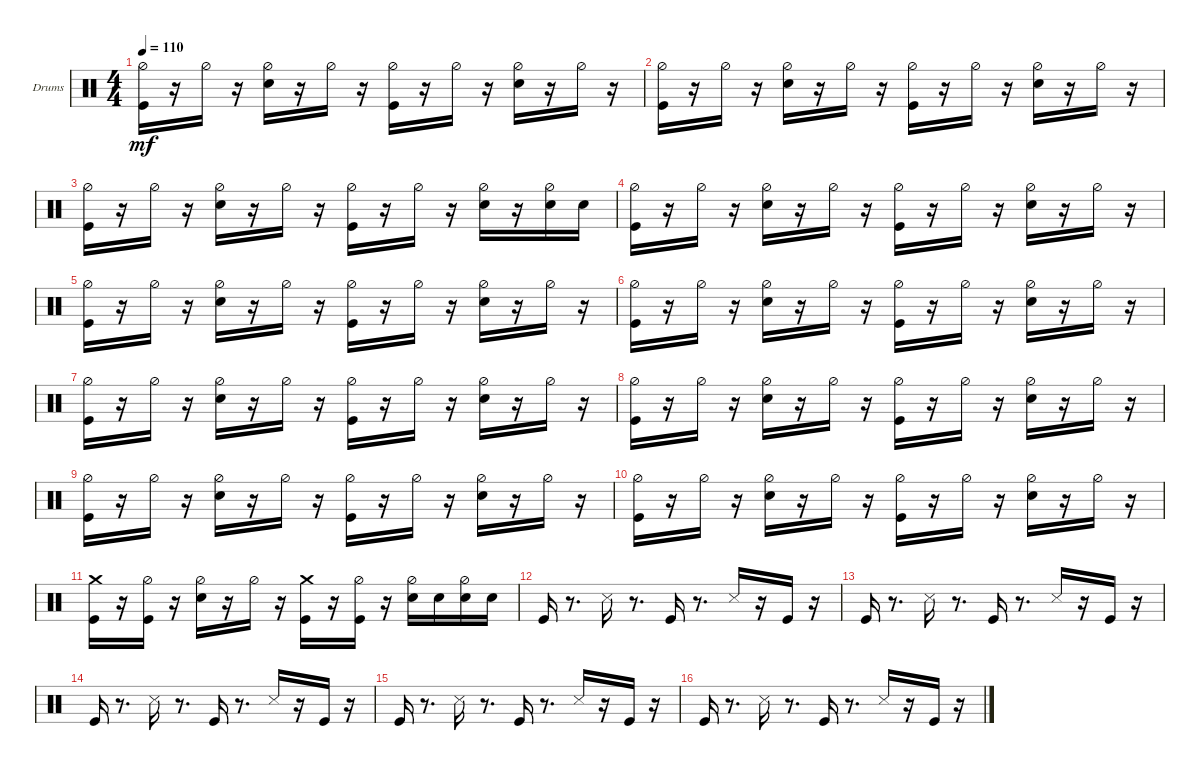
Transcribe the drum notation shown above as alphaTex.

\defaultSystemsLayout 4
\bracketExtendMode groupsimilarinstruments
\firstSystemTrackNameOrientation horizontal
\otherSystemsTrackNameOrientation horizontal
\track ("Барабаны" "Drums") {instrument percussion}
\staff {score}
\articulation defaults
\ts (4 4)
\tempo 110
\clef neutral
\ks c
("Kick (hit)" "Hi-Hat (half)").16{dy mf} r.16 "Hi-Hat (half)".16 r.16 ("Hi-Hat (half)" "Snare (hit) 2").16 r.16 "Hi-Hat (half)".16 r.16 ("Kick (hit)" "Hi-Hat (half)").16 r.16 "Hi-Hat (half)".16 r.16 ("Hi-Hat (half)" "Snare (hit) 2").16 r.16 "Hi-Hat (half)".16 r.16 |
("Kick (hit)" "Hi-Hat (half)").16 r.16 "Hi-Hat (half)".16 r.16 ("Hi-Hat (half)" "Snare (hit) 2").16 r.16 "Hi-Hat (half)".16 r.16 ("Kick (hit)" "Hi-Hat (half)").16 r.16 "Hi-Hat (half)".16 r.16 ("Hi-Hat (half)" "Snare (hit) 2").16 r.16 "Hi-Hat (half)".16 r.16 |
("Kick (hit)" "Hi-Hat (half)").16 r.16 "Hi-Hat (half)".16 r.16 ("Hi-Hat (half)" "Snare (hit) 2").16 r.16 "Hi-Hat (half)".16 r.16 ("Kick (hit)" "Hi-Hat (half)").16 r.16 "Hi-Hat (half)".16 r.16 ("Hi-Hat (half)" "Snare (hit) 2").16 r.16 ("Hi-Hat (half)" "Snare (hit) 2").16 "Snare (hit) 2".16 |
("Kick (hit)" "Hi-Hat (half)").16 r.16 "Hi-Hat (half)".16 r.16 ("Hi-Hat (half)" "Snare (hit) 2").16 r.16 "Hi-Hat (half)".16 r.16 ("Kick (hit)" "Hi-Hat (half)").16 r.16 "Hi-Hat (half)".16 r.16 ("Hi-Hat (half)" "Snare (hit) 2").16 r.16 "Hi-Hat (half)".16 r.16 |
("Kick (hit)" "Hi-Hat (half)").16 r.16 "Hi-Hat (half)".16 r.16 ("Hi-Hat (half)" "Snare (hit) 2").16 r.16 "Hi-Hat (half)".16 r.16 ("Kick (hit)" "Hi-Hat (half)").16 r.16 "Hi-Hat (half)".16 r.16 ("Hi-Hat (half)" "Snare (hit) 2").16 r.16 "Hi-Hat (half)".16 r.16 |
("Kick (hit)" "Hi-Hat (half)").16 r.16 "Hi-Hat (half)".16 r.16 ("Hi-Hat (half)" "Snare (hit) 2").16 r.16 "Hi-Hat (half)".16 r.16 ("Kick (hit)" "Hi-Hat (half)").16 r.16 "Hi-Hat (half)".16 r.16 ("Hi-Hat (half)" "Snare (hit) 2").16 r.16 "Hi-Hat (half)".16 r.16 |
("Kick (hit)" "Hi-Hat (half)").16 r.16 "Hi-Hat (half)".16 r.16 ("Hi-Hat (half)" "Snare (hit) 2").16 r.16 "Hi-Hat (half)".16 r.16 ("Kick (hit)" "Hi-Hat (half)").16 r.16 "Hi-Hat (half)".16 r.16 ("Hi-Hat (half)" "Snare (hit) 2").16 r.16 "Hi-Hat (half)".16 r.16 |
("Kick (hit)" "Hi-Hat (half)").16 r.16 "Hi-Hat (half)".16 r.16 ("Hi-Hat (half)" "Snare (hit) 2").16 r.16 "Hi-Hat (half)".16 r.16 ("Kick (hit)" "Hi-Hat (half)").16 r.16 "Hi-Hat (half)".16 r.16 ("Hi-Hat (half)" "Snare (hit) 2").16 r.16 "Hi-Hat (half)".16 r.16 |
("Kick (hit)" "Hi-Hat (half)").16 r.16 "Hi-Hat (half)".16 r.16 ("Hi-Hat (half)" "Snare (hit) 2").16 r.16 "Hi-Hat (half)".16 r.16 ("Kick (hit)" "Hi-Hat (half)").16 r.16 "Hi-Hat (half)".16 r.16 ("Hi-Hat (half)" "Snare (hit) 2").16 r.16 "Hi-Hat (half)".16 r.16 |
("Kick (hit)" "Hi-Hat (half)").16 r.16 "Hi-Hat (half)".16 r.16 ("Hi-Hat (half)" "Snare (hit) 2").16 r.16 "Hi-Hat (half)".16 r.16 ("Kick (hit)" "Hi-Hat (half)").16 r.16 "Hi-Hat (half)".16 r.16 ("Hi-Hat (half)" "Snare (hit) 2").16 r.16 "Hi-Hat (half)".16 r.16 |
("Kick (hit)" "Crash medium (hit)").16 r.16 ("Kick (hit)" "Hi-Hat (half)").16 r.16 ("Hi-Hat (half)" "Snare (hit) 2").16 r.16 "Hi-Hat (half)".16 r.16 ("Kick (hit)" "Crash medium (hit)").16 r.16 ("Kick (hit)" "Hi-Hat (half)").16 r.16 ("Hi-Hat (half)" "Snare (hit) 2").16 "Snare (hit) 2".16 ("Hi-Hat (half)" "Snare (hit) 2").16 "Snare (hit) 2".16 |
"Kick (hit)".16 r.8{d} "Snare (side stick) 3".16 r.8{d} "Kick (hit)".16 r.8{d} "Snare (side stick) 3".16 r.16 "Kick (hit)".16 r.16 |
"Kick (hit)".16 r.8{d} "Snare (side stick) 3".16 r.8{d} "Kick (hit)".16 r.8{d} "Snare (side stick) 3".16 r.16 "Kick (hit)".16 r.16 |
"Kick (hit)".16 r.8{d} "Snare (side stick) 3".16 r.8{d} "Kick (hit)".16 r.8{d} "Snare (side stick) 3".16 r.16 "Kick (hit)".16 r.16 |
"Kick (hit)".16 r.8{d} "Snare (side stick) 3".16 r.8{d} "Kick (hit)".16 r.8{d} "Snare (side stick) 3".16 r.16 "Kick (hit)".16 r.16 |
"Kick (hit)".16 r.8{d} "Snare (side stick) 3".16 r.8{d} "Kick (hit)".16 r.8{d} "Snare (side stick) 3".16 r.16 "Kick (hit)".16 r.16
